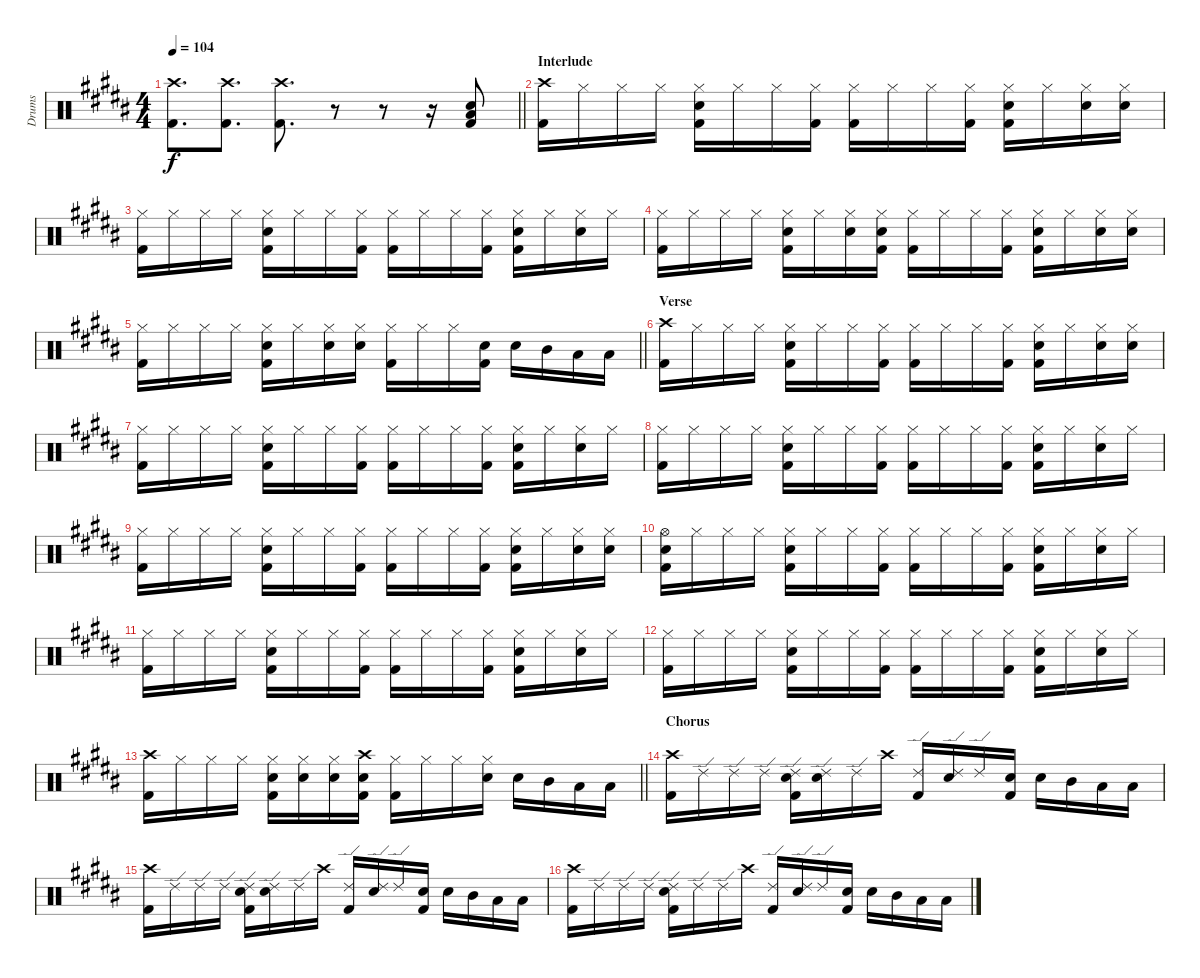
\track ("Drums" "Drums") {instrument percussion}
\staff {score}
\articulation defaults
\ts (4 4)
\tempo 104
\clef neutral
\barLineRight lightlight
\ks b
("Kick (hit) 2" "Crash high (hit)").8{d dy f} ("Kick (hit) 2" "Crash high (hit)").8{d} ("Kick (hit) 2" "Crash high (hit)").8{d} r.8 r.8 r.16 ("Low Floor Tom (hit)" "Electric Snare (hit)" "Kick (hit) 2").8 |
\section ("" "Interlude")
("Kick (hit) 2" "Crash high (hit)").16 "Hi-Hat (closed)".16 "Hi-Hat (closed)".16 "Hi-Hat (closed)".16 ("Electric Snare (hit)" "Kick (hit) 2" "Hi-Hat (closed)").16 "Hi-Hat (closed)".16 "Hi-Hat (closed)".16 ("Kick (hit) 2" "Hi-Hat (closed)").16 ("Kick (hit) 2" "Hi-Hat (closed)").16 "Hi-Hat (closed)".16 "Hi-Hat (closed)".16 ("Kick (hit) 2" "Hi-Hat (closed)").16 ("Electric Snare (hit)" "Kick (hit) 2" "Hi-Hat (closed)").16 "Hi-Hat (closed)".16 ("Electric Snare (hit)" "Hi-Hat (closed)").16 ("Electric Snare (hit)" "Hi-Hat (closed)").16 |
("Kick (hit) 2" "Hi-Hat (closed)").16 "Hi-Hat (closed)".16 "Hi-Hat (closed)".16 "Hi-Hat (closed)".16 ("Electric Snare (hit)" "Kick (hit) 2" "Hi-Hat (closed)").16 "Hi-Hat (closed)".16 "Hi-Hat (closed)".16 ("Kick (hit) 2" "Hi-Hat (closed)").16 ("Kick (hit) 2" "Hi-Hat (closed)").16 "Hi-Hat (closed)".16 "Hi-Hat (closed)".16 ("Kick (hit) 2" "Hi-Hat (closed)").16 ("Electric Snare (hit)" "Kick (hit) 2" "Hi-Hat (closed)").16 "Hi-Hat (closed)".16 ("Electric Snare (hit)" "Hi-Hat (closed)").16 "Hi-Hat (closed)".16 |
("Kick (hit) 2" "Hi-Hat (closed)").16 "Hi-Hat (closed)".16 "Hi-Hat (closed)".16 "Hi-Hat (closed)".16 ("Electric Snare (hit)" "Kick (hit) 2" "Hi-Hat (closed)").16 "Hi-Hat (closed)".16 ("Electric Snare (hit)" "Hi-Hat (closed)").16 ("Electric Snare (hit)" "Kick (hit) 2" "Hi-Hat (closed)").16 ("Kick (hit) 2" "Hi-Hat (closed)").16 "Hi-Hat (closed)".16 "Hi-Hat (closed)".16 ("Kick (hit) 2" "Hi-Hat (closed)").16 ("Electric Snare (hit)" "Kick (hit) 2" "Hi-Hat (closed)").16 "Hi-Hat (closed)".16 ("Electric Snare (hit)" "Hi-Hat (closed)").16 ("Electric Snare (hit)" "Hi-Hat (closed)").16 |
\barLineRight lightlight
("Kick (hit) 2" "Hi-Hat (closed)").16 "Hi-Hat (closed)".16 "Hi-Hat (closed)".16 "Hi-Hat (closed)".16 ("Electric Snare (hit)" "Kick (hit) 2" "Hi-Hat (closed)").16 "Hi-Hat (closed)".16 ("Electric Snare (hit)" "Hi-Hat (closed)").16 ("Electric Snare (hit)" "Hi-Hat (closed)").16 ("Kick (hit) 2" "Hi-Hat (closed)").16 "Hi-Hat (closed)".16 "Hi-Hat (closed)".16 ("Electric Snare (hit)" "Kick (hit) 2").16 "Electric Snare (hit)".16 "Mid Tom (hit)".16 "Low Tom (hit)".16 "Low Floor Tom (hit)".16 |
\section ("" "Verse")
("Kick (hit) 2" "Crash high (hit)").16 "Hi-Hat (closed)".16 "Hi-Hat (closed)".16 "Hi-Hat (closed)".16 ("Electric Snare (hit)" "Kick (hit) 2" "Hi-Hat (closed)").16 "Hi-Hat (closed)".16 "Hi-Hat (closed)".16 ("Kick (hit) 2" "Hi-Hat (closed)").16 ("Kick (hit) 2" "Hi-Hat (closed)").16 "Hi-Hat (closed)".16 "Hi-Hat (closed)".16 ("Kick (hit) 2" "Hi-Hat (closed)").16 ("Electric Snare (hit)" "Kick (hit) 2" "Hi-Hat (closed)").16 "Hi-Hat (closed)".16 ("Electric Snare (hit)" "Hi-Hat (closed)").16 ("Electric Snare (hit)" "Hi-Hat (closed)").16 |
("Kick (hit) 2" "Hi-Hat (closed)").16 "Hi-Hat (closed)".16 "Hi-Hat (closed)".16 "Hi-Hat (closed)".16 ("Electric Snare (hit)" "Kick (hit) 2" "Hi-Hat (closed)").16 "Hi-Hat (closed)".16 "Hi-Hat (closed)".16 ("Kick (hit) 2" "Hi-Hat (closed)").16 ("Kick (hit) 2" "Hi-Hat (closed)").16 "Hi-Hat (closed)".16 "Hi-Hat (closed)".16 ("Kick (hit) 2" "Hi-Hat (closed)").16 ("Electric Snare (hit)" "Kick (hit) 2" "Hi-Hat (closed)").16 "Hi-Hat (closed)".16 ("Electric Snare (hit)" "Hi-Hat (closed)").16 "Hi-Hat (closed)".16 |
("Kick (hit) 2" "Hi-Hat (closed)").16 "Hi-Hat (closed)".16 "Hi-Hat (closed)".16 "Hi-Hat (closed)".16 ("Electric Snare (hit)" "Kick (hit) 2" "Hi-Hat (closed)").16 "Hi-Hat (closed)".16 "Hi-Hat (closed)".16 ("Kick (hit) 2" "Hi-Hat (closed)").16 ("Kick (hit) 2" "Hi-Hat (closed)").16 "Hi-Hat (closed)".16 "Hi-Hat (closed)".16 ("Kick (hit) 2" "Hi-Hat (closed)").16 ("Electric Snare (hit)" "Kick (hit) 2" "Hi-Hat (closed)").16 "Hi-Hat (closed)".16 ("Electric Snare (hit)" "Hi-Hat (closed)").16 "Hi-Hat (closed)".16 |
("Kick (hit) 2" "Hi-Hat (closed)").16 "Hi-Hat (closed)".16 "Hi-Hat (closed)".16 "Hi-Hat (closed)".16 ("Electric Snare (hit)" "Kick (hit) 2" "Hi-Hat (closed)").16 "Hi-Hat (closed)".16 "Hi-Hat (closed)".16 ("Kick (hit) 2" "Hi-Hat (closed)").16 ("Kick (hit) 2" "Hi-Hat (closed)").16 "Hi-Hat (closed)".16 "Hi-Hat (closed)".16 ("Kick (hit) 2" "Hi-Hat (closed)").16 ("Electric Snare (hit)" "Kick (hit) 2" "Hi-Hat (closed)").16 "Hi-Hat (closed)".16 ("Electric Snare (hit)" "Hi-Hat (closed)").16 ("Electric Snare (hit)" "Hi-Hat (closed)").16 |
("Electric Snare (hit)" "Kick (hit) 2" "Hi-Hat (open)").16 "Hi-Hat (closed)".16 "Hi-Hat (closed)".16 "Hi-Hat (closed)".16 ("Electric Snare (hit)" "Kick (hit) 2" "Hi-Hat (closed)").16 "Hi-Hat (closed)".16 "Hi-Hat (closed)".16 ("Kick (hit) 2" "Hi-Hat (closed)").16 ("Kick (hit) 2" "Hi-Hat (closed)").16 "Hi-Hat (closed)".16 "Hi-Hat (closed)".16 ("Kick (hit) 2" "Hi-Hat (closed)").16 ("Electric Snare (hit)" "Kick (hit) 2" "Hi-Hat (closed)").16 "Hi-Hat (closed)".16 ("Electric Snare (hit)" "Hi-Hat (closed)").16 "Hi-Hat (closed)".16 |
("Kick (hit) 2" "Hi-Hat (closed)").16 "Hi-Hat (closed)".16 "Hi-Hat (closed)".16 "Hi-Hat (closed)".16 ("Electric Snare (hit)" "Kick (hit) 2" "Hi-Hat (closed)").16 "Hi-Hat (closed)".16 "Hi-Hat (closed)".16 ("Kick (hit) 2" "Hi-Hat (closed)").16 ("Kick (hit) 2" "Hi-Hat (closed)").16 "Hi-Hat (closed)".16 "Hi-Hat (closed)".16 ("Kick (hit) 2" "Hi-Hat (closed)").16 ("Electric Snare (hit)" "Kick (hit) 2" "Hi-Hat (closed)").16 "Hi-Hat (closed)".16 ("Electric Snare (hit)" "Hi-Hat (closed)").16 "Hi-Hat (closed)".16 |
("Kick (hit) 2" "Hi-Hat (closed)").16 "Hi-Hat (closed)".16 "Hi-Hat (closed)".16 "Hi-Hat (closed)".16 ("Electric Snare (hit)" "Kick (hit) 2" "Hi-Hat (closed)").16 "Hi-Hat (closed)".16 "Hi-Hat (closed)".16 ("Kick (hit) 2" "Hi-Hat (closed)").16 ("Kick (hit) 2" "Hi-Hat (closed)").16 "Hi-Hat (closed)".16 "Hi-Hat (closed)".16 ("Kick (hit) 2" "Hi-Hat (closed)").16 ("Electric Snare (hit)" "Kick (hit) 2" "Hi-Hat (closed)").16 "Hi-Hat (closed)".16 ("Electric Snare (hit)" "Hi-Hat (closed)").16 "Hi-Hat (closed)".16 |
\barLineRight lightlight
("Kick (hit) 2" "Crash high (hit)").16 "Hi-Hat (closed)".16 "Hi-Hat (closed)".16 "Hi-Hat (closed)".16 ("Electric Snare (hit)" "Kick (hit) 2" "Hi-Hat (closed)").16 ("Electric Snare (hit)" "Hi-Hat (closed)").16 ("Electric Snare (hit)" "Hi-Hat (closed)").16 ("Electric Snare (hit)" "Kick (hit) 2" "Crash high (hit)").16 ("Kick (hit) 2" "Hi-Hat (closed)").16 "Hi-Hat (closed)".16 "Hi-Hat (closed)".16 ("Electric Snare (hit)" "Hi-Hat (closed)").16 "Electric Snare (hit)".16 "Mid Tom (hit)".16 "Low Tom (hit)".16 "Low Floor Tom (hit)".16 |
\section ("" "Chorus")
("Kick (hit) 2" "Crash high (hit)").16 "Ride (edge) 2".16 "Ride (edge) 2".16 "Ride (edge) 2".16 ("Electric Snare (hit)" "Kick (hit) 2" "Ride (edge) 2").16 ("Electric Snare (hit)" "Ride (edge) 2").16 "Ride (edge) 2".16 "Crash high (hit)".16 ("Kick (hit) 2" "Ride (edge) 2").16 ("Electric Snare (hit)" "Ride (edge) 2").16 "Ride (edge) 2".16 ("Electric Snare (hit)" "Kick (hit) 2").16 "Electric Snare (hit)".16 "Mid Tom (hit)".16 "Low Tom (hit)".16 "Low Floor Tom (hit)".16 |
("Kick (hit) 2" "Crash high (hit)").16 "Ride (edge) 2".16 "Ride (edge) 2".16 "Ride (edge) 2".16 ("Electric Snare (hit)" "Kick (hit) 2" "Ride (edge) 2").16 ("Electric Snare (hit)" "Ride (edge) 2").16 "Ride (edge) 2".16 "Crash high (hit)".16 ("Kick (hit) 2" "Ride (edge) 2").16 ("Electric Snare (hit)" "Ride (edge) 2").16 "Ride (edge) 2".16 ("Electric Snare (hit)" "Kick (hit) 2").16 "Electric Snare (hit)".16 "Mid Tom (hit)".16 "Low Tom (hit)".16 "Low Floor Tom (hit)".16 |
("Kick (hit) 2" "Crash high (hit)").16 "Ride (edge) 2".16 "Ride (edge) 2".16 "Ride (edge) 2".16 ("Electric Snare (hit)" "Kick (hit) 2" "Ride (edge) 2").16 "Ride (edge) 2".16 "Ride (edge) 2".16 "Crash high (hit)".16 ("Kick (hit) 2" "Ride (edge) 2").16 ("Electric Snare (hit)" "Ride (edge) 2").16 "Ride (edge) 2".16 ("Electric Snare (hit)" "Kick (hit) 2").16 "Electric Snare (hit)".16 "Mid Tom (hit)".16 "Low Tom (hit)".16 "Low Floor Tom (hit)".16
